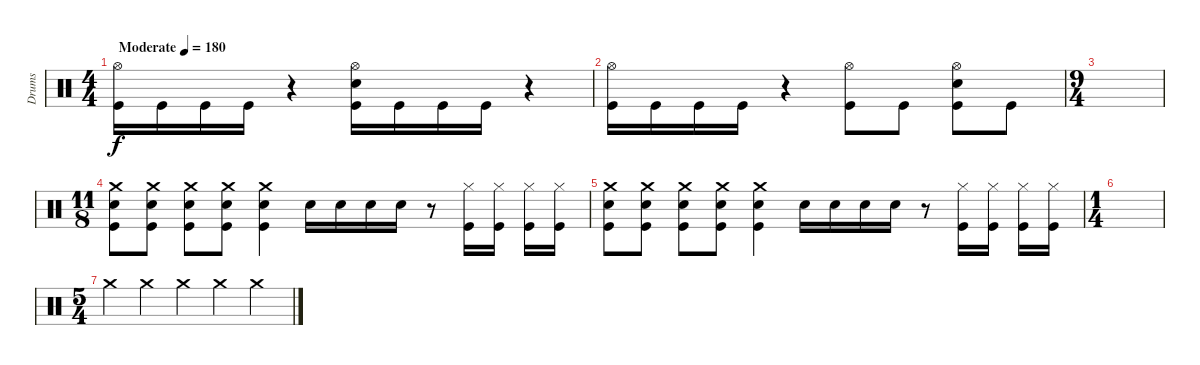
\track ("Drums" "Drums") {instrument percussion}
\staff {score}
\articulation defaults
\ts (4 4)
\tempo (180 "Moderate")
\clef neutral
\ks c
("Hi-Hat (open)" "Kick (hit)").16{dy f} "Kick (hit)".16 "Kick (hit)".16 "Kick (hit)".16 r.4 ("Hi-Hat (open)" "Snare (hit) 2" "Kick (hit)").16 "Kick (hit)".16 "Kick (hit)".16 "Kick (hit)".16 r.4 |
("Hi-Hat (open)" "Kick (hit)").16 "Kick (hit)".16 "Kick (hit)".16 "Kick (hit)".16 r.4 ("Hi-Hat (open)" "Kick (hit)").8 "Kick (hit)".8 ("Hi-Hat (open)" "Snare (hit) 2" "Kick (hit)").8 "Kick (hit)".8 |
\ts (9 4)
|
\ts (11 8)
("Crash medium (hit)" "Snare (hit) 2" "Kick (hit)").8 ("Crash medium (hit)" "Snare (hit) 2" "Kick (hit)").8 ("Crash medium (hit)" "Snare (hit) 2" "Kick (hit)").8 ("Crash medium (hit)" "Snare (hit) 2" "Kick (hit)").8 ("Crash medium (hit)" "Snare (hit) 2" "Kick (hit)").4 "Snare (hit) 2".16 "Snare (hit) 2".16 "Snare (hit) 2".16 "Snare (hit) 2".16 r.8 ("Hi-Hat (closed)" "Kick (hit)").16 ("Hi-Hat (closed)" "Kick (hit)").16 ("Hi-Hat (closed)" "Kick (hit)").16 ("Hi-Hat (closed)" "Kick (hit)").16 |
("Crash medium (hit)" "Snare (hit) 2" "Kick (hit)").8 ("Crash medium (hit)" "Snare (hit) 2" "Kick (hit)").8 ("Crash medium (hit)" "Snare (hit) 2" "Kick (hit)").8 ("Crash medium (hit)" "Snare (hit) 2" "Kick (hit)").8 ("Crash medium (hit)" "Snare (hit) 2" "Kick (hit)").4 "Snare (hit) 2".16 "Snare (hit) 2".16 "Snare (hit) 2".16 "Snare (hit) 2".16 r.8 ("Hi-Hat (closed)" "Kick (hit)").16 ("Hi-Hat (closed)" "Kick (hit)").16 ("Hi-Hat (closed)" "Kick (hit)").16 ("Hi-Hat (closed)" "Kick (hit)").16 |
\ts (1 4)
|
\ts (5 4)
"Crash medium (hit)".4 "Crash medium (hit)".4 "Crash medium (hit)".4 "Crash medium (hit)".4 "Crash medium (hit)".4
